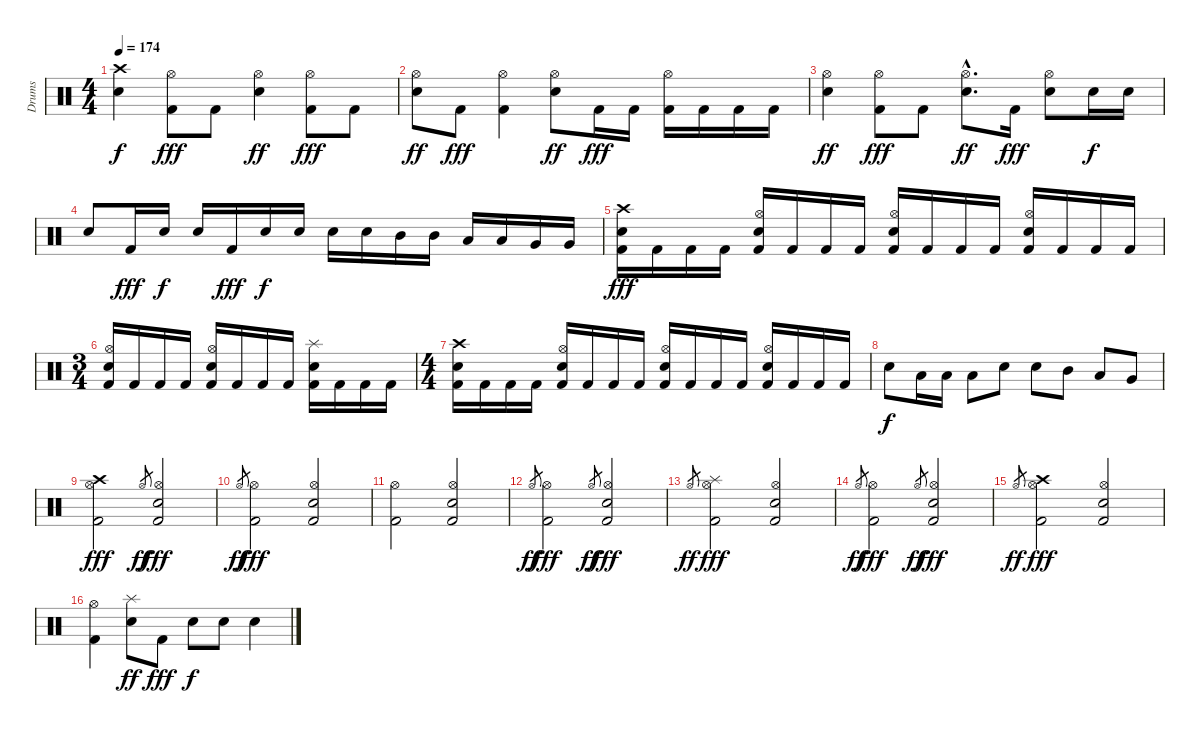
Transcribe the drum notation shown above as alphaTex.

\track ("Drums" "Drums") {instrument percussion}
\staff {score}
\articulation defaults
\ts (4 4)
\tempo 174
\clef neutral
\ks c
("Crash high (hit)" "Snare (hit) 2").4{dy f} ("Hi-Hat (open)" "Kick (hit) 2").8{dy fff} "Kick (hit) 2".8 ("Hi-Hat (open)" "Snare (hit) 2").4{dy ff} ("Hi-Hat (open)" "Kick (hit) 2").8{dy fff} "Kick (hit) 2".8 |
("Hi-Hat (open)" "Snare (hit) 2").8{dy ff} "Kick (hit) 2".8{dy fff} ("Hi-Hat (open)" "Kick (hit) 2").4 ("Hi-Hat (open)" "Snare (hit) 2").8{dy ff} "Kick (hit) 2".16{dy fff} "Kick (hit) 2".16 ("Hi-Hat (open)" "Kick (hit) 2").16 "Kick (hit) 2".16 "Kick (hit) 2".16 "Kick (hit) 2".16 |
("Hi-Hat (open)" "Snare (hit) 2").4{dy ff} ("Hi-Hat (open)" "Kick (hit) 2").8{dy fff} "Kick (hit) 2".8 ("Hi-Hat (open)"{hac} "Snare (hit) 2"{hac}).8{d dy ff} "Kick (hit) 2".16{dy fff} ("Hi-Hat (open)" "Snare (hit) 2").8 "Snare (hit) 2".16{dy f} "Snare (hit) 2".16 |
"Snare (hit) 2".8 "Kick (hit) 2".16{dy fff} "Snare (hit) 2".16{dy f} "Snare (hit) 2".16 "Kick (hit) 2".16{dy fff} "Snare (hit) 2".16{dy f} "Snare (hit) 2".16 "Snare (hit) 2".16 "Snare (hit) 2".16 "Mid Tom (hit)".16 "Mid Tom (hit)".16 "Low Tom (hit)".16 "Low Tom (hit)".16 "Very Low Tom (hit)".16 "Very Low Tom (hit)".16 |
("Crash high (hit)" "Snare (hit) 2" "Kick (hit) 2").16{dy fff} "Kick (hit) 2".16 "Kick (hit) 2".16 "Kick (hit) 2".16 ("Hi-Hat (open)" "Snare (hit) 2" "Kick (hit) 2").16 "Kick (hit) 2".16 "Kick (hit) 2".16 "Kick (hit) 2".16 ("Hi-Hat (open)" "Snare (hit) 2" "Kick (hit) 2").16 "Kick (hit) 2".16 "Kick (hit) 2".16 "Kick (hit) 2".16 ("Hi-Hat (open)" "Snare (hit) 2" "Kick (hit) 2").16 "Kick (hit) 2".16 "Kick (hit) 2".16 "Kick (hit) 2".16 |
\ts (3 4)
("Hi-Hat (open)" "Snare (hit) 2" "Kick (hit) 2").16 "Kick (hit) 2".16 "Kick (hit) 2".16 "Kick (hit) 2".16 ("Hi-Hat (open)" "Snare (hit) 2" "Kick (hit) 2").16 "Kick (hit) 2".16 "Kick (hit) 2".16 "Kick (hit) 2".16 ("Splash (hit)" "Snare (hit) 2" "Kick (hit) 2").16 "Kick (hit) 2".16 "Kick (hit) 2".16 "Kick (hit) 2".16 |
\ts (4 4)
("Crash high (hit)" "Snare (hit) 2" "Kick (hit) 2").16 "Kick (hit) 2".16 "Kick (hit) 2".16 "Kick (hit) 2".16 ("Hi-Hat (open)" "Snare (hit) 2" "Kick (hit) 2").16 "Kick (hit) 2".16 "Kick (hit) 2".16 "Kick (hit) 2".16 ("Hi-Hat (open)" "Snare (hit) 2" "Kick (hit) 2").16 "Kick (hit) 2".16 "Kick (hit) 2".16 "Kick (hit) 2".16 ("Hi-Hat (open)" "Snare (hit) 2" "Kick (hit) 2").16 "Kick (hit) 2".16 "Kick (hit) 2".16 "Kick (hit) 2".16 |
"Snare (hit) 2".8{dy f} "Low Tom (hit)".16 "Low Tom (hit)".16 "Low Tom (hit)".8 "Snare (hit) 2".8 "Snare (hit) 2".8 "Mid Tom (hit)".8 "Low Tom (hit)".8 "Very Low Tom (hit)".8 |
("Crash high (hit)" "Hi-Hat (open)" "Kick (hit) 2").2{dy fff} "Hi-Hat (open)".8{gr dy ff} ("Hi-Hat (open)" "Snare (hit) 2" "Kick (hit) 2").2{dy fff} |
"Hi-Hat (open)".8{gr dy ff} ("Hi-Hat (open)" "Kick (hit) 2").2{dy fff} ("Hi-Hat (open)" "Snare (hit) 2" "Kick (hit) 2").2 |
("Hi-Hat (open)" "Kick (hit) 2").2 ("Hi-Hat (open)" "Snare (hit) 2" "Kick (hit) 2").2 |
"Hi-Hat (open)".8{gr dy ff} ("Hi-Hat (open)" "Kick (hit) 2").2{dy fff} "Hi-Hat (open)".8{gr dy ff} ("Hi-Hat (open)" "Snare (hit) 2" "Kick (hit) 2").2{dy fff} |
"Hi-Hat (open)".8{gr dy ff} ("Splash (hit)" "Hi-Hat (open)" "Kick (hit) 2").2{dy fff} ("Hi-Hat (open)" "Snare (hit) 2" "Kick (hit) 2").2 |
"Hi-Hat (open)".8{gr dy ff} ("Hi-Hat (open)" "Kick (hit) 2").2{dy fff} "Hi-Hat (open)".8{gr dy ff} ("Hi-Hat (open)" "Snare (hit) 2" "Kick (hit) 2").2{dy fff} |
"Hi-Hat (open)".8{gr dy ff} ("Crash high (hit)" "Hi-Hat (open)" "Kick (hit) 2").2{dy fff} ("Hi-Hat (open)" "Snare (hit) 2" "Kick (hit) 2").2 |
("Hi-Hat (open)" "Kick (hit) 2").4 ("Splash (hit)" "Snare (hit) 2").8{dy ff} "Kick (hit) 2".8{dy fff} "Snare (hit) 2".8{dy f} "Snare (hit) 2".8 "Snare (hit) 2".4
